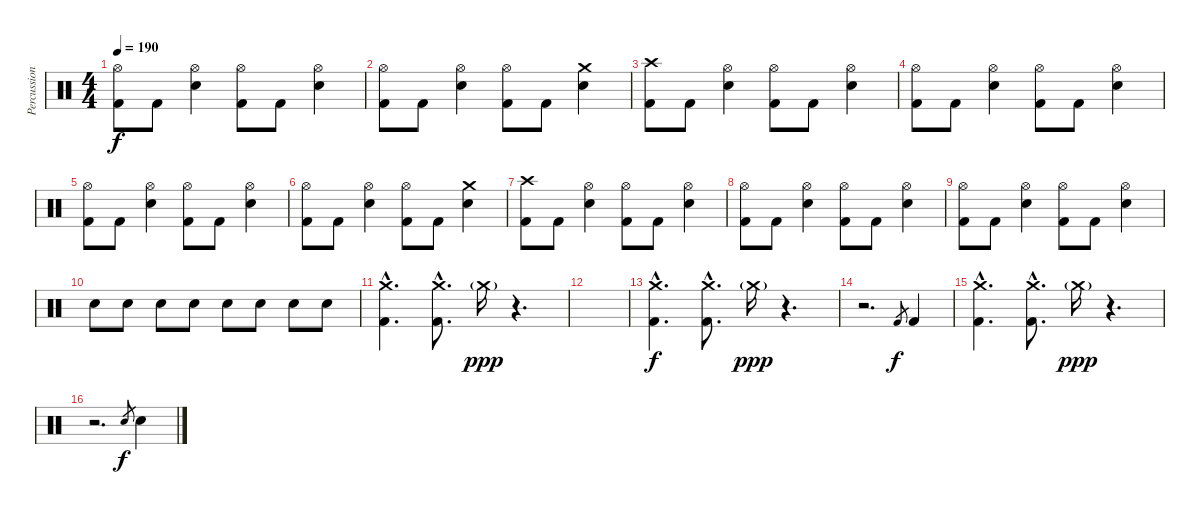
\track ("Percussion" "Percussion") {instrument percussion}
\staff {score}
\articulation defaults
\ts (4 4)
\tempo 190
\clef neutral
\ks c
("Hi-Hat (open)" "Kick (hit) 2").8{dy f} "Kick (hit) 2".8 ("Hi-Hat (open)" "Snare (hit) 2").4 ("Hi-Hat (open)" "Kick (hit) 2").8 "Kick (hit) 2".8 ("Hi-Hat (open)" "Snare (hit) 2").4 |
("Hi-Hat (open)" "Kick (hit) 2").8 "Kick (hit) 2".8 ("Hi-Hat (open)" "Snare (hit) 2").4 ("Hi-Hat (open)" "Kick (hit) 2").8 "Kick (hit) 2".8 ("Crash medium (hit)" "Snare (hit) 2").4 |
("Crash high (hit)" "Kick (hit) 2").8 "Kick (hit) 2".8 ("Hi-Hat (open)" "Snare (hit) 2").4 ("Hi-Hat (open)" "Kick (hit) 2").8 "Kick (hit) 2".8 ("Hi-Hat (open)" "Snare (hit) 2").4 |
("Hi-Hat (open)" "Kick (hit) 2").8 "Kick (hit) 2".8 ("Hi-Hat (open)" "Snare (hit) 2").4 ("Hi-Hat (open)" "Kick (hit) 2").8 "Kick (hit) 2".8 ("Hi-Hat (open)" "Snare (hit) 2").4 |
("Hi-Hat (open)" "Kick (hit) 2").8 "Kick (hit) 2".8 ("Hi-Hat (open)" "Snare (hit) 2").4 ("Hi-Hat (open)" "Kick (hit) 2").8 "Kick (hit) 2".8 ("Hi-Hat (open)" "Snare (hit) 2").4 |
("Hi-Hat (open)" "Kick (hit) 2").8 "Kick (hit) 2".8 ("Hi-Hat (open)" "Snare (hit) 2").4 ("Hi-Hat (open)" "Kick (hit) 2").8 "Kick (hit) 2".8 ("Crash medium (hit)" "Snare (hit) 2").4 |
("Crash high (hit)" "Kick (hit) 2").8 "Kick (hit) 2".8 ("Hi-Hat (open)" "Snare (hit) 2").4 ("Hi-Hat (open)" "Kick (hit) 2").8 "Kick (hit) 2".8 ("Hi-Hat (open)" "Snare (hit) 2").4 |
("Hi-Hat (open)" "Kick (hit) 2").8 "Kick (hit) 2".8 ("Hi-Hat (open)" "Snare (hit) 2").4 ("Hi-Hat (open)" "Kick (hit) 2").8 "Kick (hit) 2".8 ("Hi-Hat (open)" "Snare (hit) 2").4 |
("Hi-Hat (open)" "Kick (hit) 2").8 "Kick (hit) 2".8 ("Hi-Hat (open)" "Snare (hit) 2").4 ("Hi-Hat (open)" "Kick (hit) 2").8 "Kick (hit) 2".8 ("Hi-Hat (open)" "Snare (hit) 2").4 |
"Snare (hit) 2".8 "Snare (hit) 2".8 "Snare (hit) 2".8 "Snare (hit) 2".8 "Snare (hit) 2".8 "Snare (hit) 2".8 "Snare (hit) 2".8 "Snare (hit) 2".8 |
("Crash medium (hit)"{hac} "Kick (hit) 2"{hac}).4{d} ("Crash medium (hit)"{hac} "Kick (hit) 2"{hac}).8{d} "Crash medium (hit)"{g}.16{dy ppp} r.4{d} |
|
("Crash medium (hit)"{hac} "Kick (hit) 2"{hac}).4{d dy f} ("Crash medium (hit)"{hac} "Kick (hit) 2"{hac}).8{d} "Crash medium (hit)"{g}.16{dy ppp} r.4{d} |
r.2{d} "Kick (hit) 2".8{gr dy f} "Kick (hit) 2".4 |
("Crash medium (hit)"{hac} "Kick (hit) 2"{hac}).4{d} ("Crash medium (hit)"{hac} "Kick (hit) 2"{hac}).8{d} "Crash medium (hit)"{g}.16{dy ppp} r.4{d} |
r.2{d} "Snare (hit) 2".8{gr dy f} "Snare (hit) 2".4
